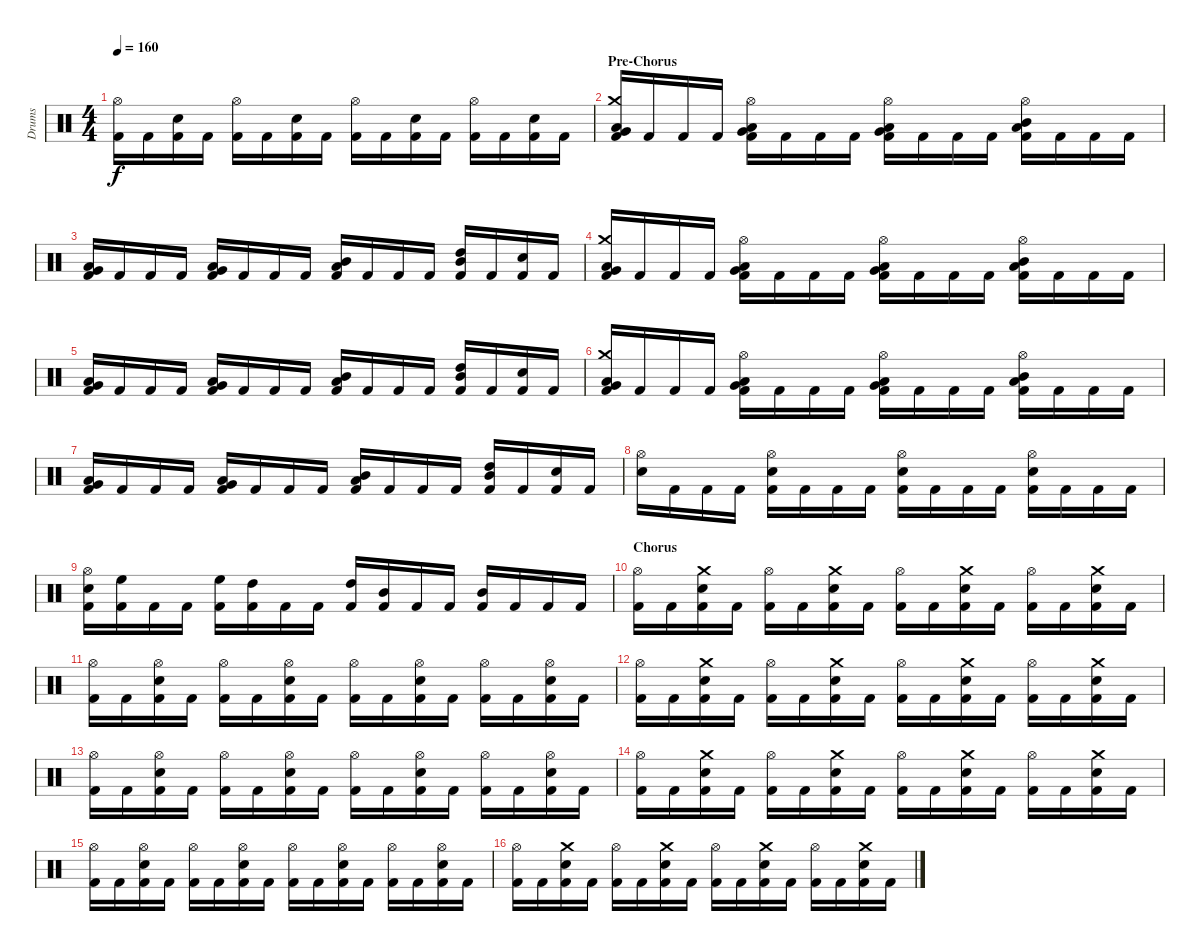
\track ("Drums" "Drums") {instrument percussion}
\staff {score}
\articulation defaults
\ts (4 4)
\tempo 160
\clef neutral
\ks c
("Hi-Hat (open)" "Kick (hit) 2").16{dy f} "Kick (hit) 2".16 ("Electric Snare (hit)" "Kick (hit) 2").16 "Kick (hit) 2".16 ("Hi-Hat (open)" "Kick (hit) 2").16 "Kick (hit) 2".16 ("Electric Snare (hit)" "Kick (hit) 2").16 "Kick (hit) 2".16 ("Hi-Hat (open)" "Kick (hit) 2").16 "Kick (hit) 2".16 ("Electric Snare (hit)" "Kick (hit) 2").16 "Kick (hit) 2".16 ("Hi-Hat (open)" "Kick (hit) 2").16 "Kick (hit) 2".16 ("Electric Snare (hit)" "Kick (hit) 2").16 "Kick (hit) 2".16 |
\section ("" "Pre-Chorus")
("Crash medium (hit)" "Very Low Tom (hit)" "Low Floor Tom (hit)" "Kick (hit) 2").16 "Kick (hit) 2".16 "Kick (hit) 2".16 "Kick (hit) 2".16 ("Hi-Hat (open)" "Low Tom (hit)" "Very Low Tom (hit)" "Kick (hit) 2").16 "Kick (hit) 2".16 "Kick (hit) 2".16 "Kick (hit) 2".16 ("Hi-Hat (open)" "Low Tom (hit)" "Very Low Tom (hit)" "Kick (hit) 2").16 "Kick (hit) 2".16 "Kick (hit) 2".16 "Kick (hit) 2".16 ("Hi-Hat (open)" "Mid Tom (hit)" "Low Tom (hit)" "Kick (hit) 2").16 "Kick (hit) 2".16 "Kick (hit) 2".16 "Kick (hit) 2".16 |
("Very Low Tom (hit)" "Low Floor Tom (hit)" "Kick (hit) 2").16 "Kick (hit) 2".16 "Kick (hit) 2".16 "Kick (hit) 2".16 ("Low Tom (hit)" "Very Low Tom (hit)" "Kick (hit) 2").16 "Kick (hit) 2".16 "Kick (hit) 2".16 "Kick (hit) 2".16 ("Mid Tom (hit)" "Low Tom (hit)" "Kick (hit) 2").16 "Kick (hit) 2".16 "Kick (hit) 2".16 "Kick (hit) 2".16 ("High Tom (hit)" "Mid Tom (hit)" "Kick (hit) 2").16 "Kick (hit) 2".16 ("Electric Snare (hit)" "Kick (hit) 2").16 "Kick (hit) 2".16 |
("Crash medium (hit)" "Very Low Tom (hit)" "Low Floor Tom (hit)" "Kick (hit) 2").16 "Kick (hit) 2".16 "Kick (hit) 2".16 "Kick (hit) 2".16 ("Hi-Hat (open)" "Low Tom (hit)" "Very Low Tom (hit)" "Kick (hit) 2").16 "Kick (hit) 2".16 "Kick (hit) 2".16 "Kick (hit) 2".16 ("Hi-Hat (open)" "Low Tom (hit)" "Very Low Tom (hit)" "Kick (hit) 2").16 "Kick (hit) 2".16 "Kick (hit) 2".16 "Kick (hit) 2".16 ("Hi-Hat (open)" "Mid Tom (hit)" "Low Tom (hit)" "Kick (hit) 2").16 "Kick (hit) 2".16 "Kick (hit) 2".16 "Kick (hit) 2".16 |
("Very Low Tom (hit)" "Low Floor Tom (hit)" "Kick (hit) 2").16 "Kick (hit) 2".16 "Kick (hit) 2".16 "Kick (hit) 2".16 ("Low Tom (hit)" "Very Low Tom (hit)" "Kick (hit) 2").16 "Kick (hit) 2".16 "Kick (hit) 2".16 "Kick (hit) 2".16 ("Mid Tom (hit)" "Low Tom (hit)" "Kick (hit) 2").16 "Kick (hit) 2".16 "Kick (hit) 2".16 "Kick (hit) 2".16 ("High Tom (hit)" "Mid Tom (hit)" "Kick (hit) 2").16 "Kick (hit) 2".16 ("Electric Snare (hit)" "Kick (hit) 2").16 "Kick (hit) 2".16 |
("Crash medium (hit)" "Very Low Tom (hit)" "Low Floor Tom (hit)" "Kick (hit) 2").16 "Kick (hit) 2".16 "Kick (hit) 2".16 "Kick (hit) 2".16 ("Hi-Hat (open)" "Low Tom (hit)" "Very Low Tom (hit)" "Kick (hit) 2").16 "Kick (hit) 2".16 "Kick (hit) 2".16 "Kick (hit) 2".16 ("Hi-Hat (open)" "Low Tom (hit)" "Very Low Tom (hit)" "Kick (hit) 2").16 "Kick (hit) 2".16 "Kick (hit) 2".16 "Kick (hit) 2".16 ("Hi-Hat (open)" "Mid Tom (hit)" "Low Tom (hit)" "Kick (hit) 2").16 "Kick (hit) 2".16 "Kick (hit) 2".16 "Kick (hit) 2".16 |
("Very Low Tom (hit)" "Low Floor Tom (hit)" "Kick (hit) 2").16 "Kick (hit) 2".16 "Kick (hit) 2".16 "Kick (hit) 2".16 ("Low Tom (hit)" "Very Low Tom (hit)" "Kick (hit) 2").16 "Kick (hit) 2".16 "Kick (hit) 2".16 "Kick (hit) 2".16 ("Mid Tom (hit)" "Low Tom (hit)" "Kick (hit) 2").16 "Kick (hit) 2".16 "Kick (hit) 2".16 "Kick (hit) 2".16 ("High Tom (hit)" "Mid Tom (hit)" "Kick (hit) 2").16 "Kick (hit) 2".16 ("Electric Snare (hit)" "Kick (hit) 2").16 "Kick (hit) 2".16 |
("Hi-Hat (open)" "Electric Snare (hit)").16 "Kick (hit) 2".16 "Kick (hit) 2".16 "Kick (hit) 2".16 ("Hi-Hat (open)" "Electric Snare (hit)" "Kick (hit) 2").16 "Kick (hit) 2".16 "Kick (hit) 2".16 "Kick (hit) 2".16 ("Hi-Hat (open)" "Electric Snare (hit)" "Kick (hit) 2").16 "Kick (hit) 2".16 "Kick (hit) 2".16 "Kick (hit) 2".16 ("Hi-Hat (open)" "Electric Snare (hit)" "Kick (hit) 2").16 "Kick (hit) 2".16 "Kick (hit) 2".16 "Kick (hit) 2".16 |
("Hi-Hat (open)" "Electric Snare (hit)" "Kick (hit) 2").16 ("High Floor Tom (hit)" "Kick (hit) 2").16 "Kick (hit) 2".16 "Kick (hit) 2".16 ("High Floor Tom (hit)" "Kick (hit) 2").16 ("High Tom (hit)" "Kick (hit) 2").16 "Kick (hit) 2".16 "Kick (hit) 2".16 ("High Tom (hit)" "Kick (hit) 2").16 ("Mid Tom (hit)" "Kick (hit) 2").16 "Kick (hit) 2".16 "Kick (hit) 2".16 ("Mid Tom (hit)" "Kick (hit) 2").16 "Kick (hit) 2".16 "Kick (hit) 2".16 "Kick (hit) 2".16 |
\section ("" "Chorus")
("Hi-Hat (open)" "Kick (hit) 2").16 "Kick (hit) 2".16 ("Crash medium (hit)" "Electric Snare (hit)" "Kick (hit) 2").16 "Kick (hit) 2".16 ("Hi-Hat (open)" "Kick (hit) 2").16 "Kick (hit) 2".16 ("Crash medium (hit)" "Electric Snare (hit)" "Kick (hit) 2").16 "Kick (hit) 2".16 ("Hi-Hat (open)" "Kick (hit) 2").16 "Kick (hit) 2".16 ("Crash medium (hit)" "Electric Snare (hit)" "Kick (hit) 2").16 "Kick (hit) 2".16 ("Hi-Hat (open)" "Kick (hit) 2").16 "Kick (hit) 2".16 ("Crash medium (hit)" "Electric Snare (hit)" "Kick (hit) 2").16 "Kick (hit) 2".16 |
("Hi-Hat (open)" "Kick (hit) 2").16 "Kick (hit) 2".16 ("Hi-Hat (open)" "Electric Snare (hit)" "Kick (hit) 2").16 "Kick (hit) 2".16 ("Hi-Hat (open)" "Kick (hit) 2").16 "Kick (hit) 2".16 ("Hi-Hat (open)" "Electric Snare (hit)" "Kick (hit) 2").16 "Kick (hit) 2".16 ("Hi-Hat (open)" "Kick (hit) 2").16 "Kick (hit) 2".16 ("Hi-Hat (open)" "Electric Snare (hit)" "Kick (hit) 2").16 "Kick (hit) 2".16 ("Hi-Hat (open)" "Kick (hit) 2").16 "Kick (hit) 2".16 ("Hi-Hat (open)" "Electric Snare (hit)" "Kick (hit) 2").16 "Kick (hit) 2".16 |
("Hi-Hat (open)" "Kick (hit) 2").16 "Kick (hit) 2".16 ("Crash medium (hit)" "Electric Snare (hit)" "Kick (hit) 2").16 "Kick (hit) 2".16 ("Hi-Hat (open)" "Kick (hit) 2").16 "Kick (hit) 2".16 ("Crash medium (hit)" "Electric Snare (hit)" "Kick (hit) 2").16 "Kick (hit) 2".16 ("Hi-Hat (open)" "Kick (hit) 2").16 "Kick (hit) 2".16 ("Crash medium (hit)" "Electric Snare (hit)" "Kick (hit) 2").16 "Kick (hit) 2".16 ("Hi-Hat (open)" "Kick (hit) 2").16 "Kick (hit) 2".16 ("Crash medium (hit)" "Electric Snare (hit)" "Kick (hit) 2").16 "Kick (hit) 2".16 |
("Hi-Hat (open)" "Kick (hit) 2").16 "Kick (hit) 2".16 ("Hi-Hat (open)" "Electric Snare (hit)" "Kick (hit) 2").16 "Kick (hit) 2".16 ("Hi-Hat (open)" "Kick (hit) 2").16 "Kick (hit) 2".16 ("Hi-Hat (open)" "Electric Snare (hit)" "Kick (hit) 2").16 "Kick (hit) 2".16 ("Hi-Hat (open)" "Kick (hit) 2").16 "Kick (hit) 2".16 ("Hi-Hat (open)" "Electric Snare (hit)" "Kick (hit) 2").16 "Kick (hit) 2".16 ("Hi-Hat (open)" "Kick (hit) 2").16 "Kick (hit) 2".16 ("Hi-Hat (open)" "Electric Snare (hit)" "Kick (hit) 2").16 "Kick (hit) 2".16 |
("Hi-Hat (open)" "Kick (hit) 2").16 "Kick (hit) 2".16 ("Crash medium (hit)" "Electric Snare (hit)" "Kick (hit) 2").16 "Kick (hit) 2".16 ("Hi-Hat (open)" "Kick (hit) 2").16 "Kick (hit) 2".16 ("Crash medium (hit)" "Electric Snare (hit)" "Kick (hit) 2").16 "Kick (hit) 2".16 ("Hi-Hat (open)" "Kick (hit) 2").16 "Kick (hit) 2".16 ("Crash medium (hit)" "Electric Snare (hit)" "Kick (hit) 2").16 "Kick (hit) 2".16 ("Hi-Hat (open)" "Kick (hit) 2").16 "Kick (hit) 2".16 ("Crash medium (hit)" "Electric Snare (hit)" "Kick (hit) 2").16 "Kick (hit) 2".16 |
("Hi-Hat (open)" "Kick (hit) 2").16 "Kick (hit) 2".16 ("Hi-Hat (open)" "Electric Snare (hit)" "Kick (hit) 2").16 "Kick (hit) 2".16 ("Hi-Hat (open)" "Kick (hit) 2").16 "Kick (hit) 2".16 ("Hi-Hat (open)" "Electric Snare (hit)" "Kick (hit) 2").16 "Kick (hit) 2".16 ("Hi-Hat (open)" "Kick (hit) 2").16 "Kick (hit) 2".16 ("Hi-Hat (open)" "Electric Snare (hit)" "Kick (hit) 2").16 "Kick (hit) 2".16 ("Hi-Hat (open)" "Kick (hit) 2").16 "Kick (hit) 2".16 ("Hi-Hat (open)" "Electric Snare (hit)" "Kick (hit) 2").16 "Kick (hit) 2".16 |
("Hi-Hat (open)" "Kick (hit) 2").16 "Kick (hit) 2".16 ("Crash medium (hit)" "Electric Snare (hit)" "Kick (hit) 2").16 "Kick (hit) 2".16 ("Hi-Hat (open)" "Kick (hit) 2").16 "Kick (hit) 2".16 ("Crash medium (hit)" "Electric Snare (hit)" "Kick (hit) 2").16 "Kick (hit) 2".16 ("Hi-Hat (open)" "Kick (hit) 2").16 "Kick (hit) 2".16 ("Crash medium (hit)" "Electric Snare (hit)" "Kick (hit) 2").16 "Kick (hit) 2".16 ("Hi-Hat (open)" "Kick (hit) 2").16 "Kick (hit) 2".16 ("Crash medium (hit)" "Electric Snare (hit)" "Kick (hit) 2").16 "Kick (hit) 2".16
